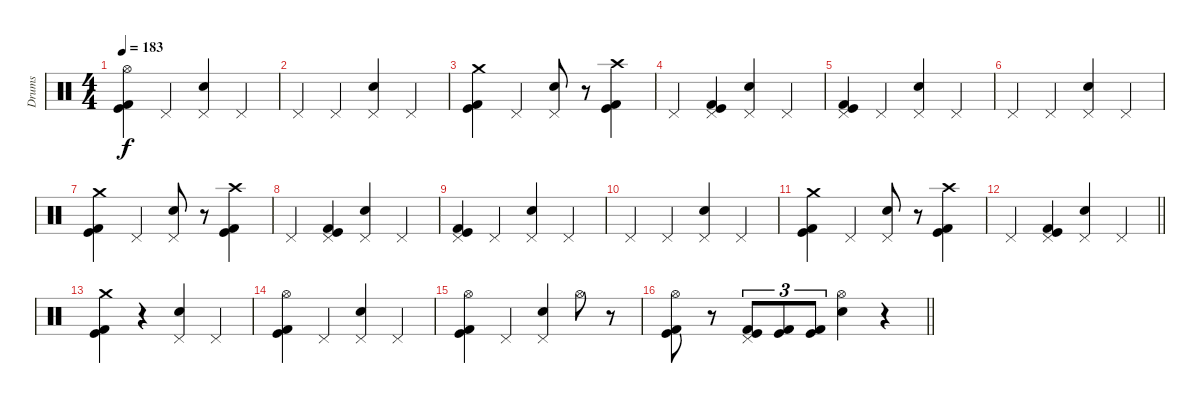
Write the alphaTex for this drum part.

\track ("Drums" "Drums") {instrument percussion}
\staff
\articulation defaults
\ts (4 4)
\tempo 183
\clef neutral
\ks c
("Hi-Hat (open)" "Kick (hit)" "Kick (hit) 2").4{dy f} "Pedal Hi-Hat (hit)".4 ("Pedal Hi-Hat (hit)" "Snare (hit) 2").4 "Pedal Hi-Hat (hit)".4 |
"Pedal Hi-Hat (hit)".4 "Pedal Hi-Hat (hit)".4 ("Pedal Hi-Hat (hit)" "Snare (hit) 2").4 "Pedal Hi-Hat (hit)".4 |
("Crash medium (hit)" "Kick (hit)" "Kick (hit) 2").4 "Pedal Hi-Hat (hit)".4 ("Pedal Hi-Hat (hit)" "Snare (hit) 2").8 r.8 ("Crash high (hit)" "Kick (hit)" "Kick (hit) 2").4 |
"Pedal Hi-Hat (hit)".4 ("Pedal Hi-Hat (hit)" "Kick (hit)" "Kick (hit) 2").4 ("Pedal Hi-Hat (hit)" "Snare (hit) 2").4 "Pedal Hi-Hat (hit)".4 |
("Pedal Hi-Hat (hit)" "Kick (hit)" "Kick (hit) 2").4 "Pedal Hi-Hat (hit)".4 ("Pedal Hi-Hat (hit)" "Snare (hit) 2").4 "Pedal Hi-Hat (hit)".4 |
"Pedal Hi-Hat (hit)".4 "Pedal Hi-Hat (hit)".4 ("Pedal Hi-Hat (hit)" "Snare (hit) 2").4 "Pedal Hi-Hat (hit)".4 |
("Crash medium (hit)" "Kick (hit)" "Kick (hit) 2").4 "Pedal Hi-Hat (hit)".4 ("Pedal Hi-Hat (hit)" "Snare (hit) 2").8 r.8 ("Crash high (hit)" "Kick (hit)" "Kick (hit) 2").4 |
"Pedal Hi-Hat (hit)".4 ("Pedal Hi-Hat (hit)" "Kick (hit)" "Kick (hit) 2").4 ("Pedal Hi-Hat (hit)" "Snare (hit) 2").4 "Pedal Hi-Hat (hit)".4 |
("Pedal Hi-Hat (hit)" "Kick (hit)" "Kick (hit) 2").4 "Pedal Hi-Hat (hit)".4 ("Pedal Hi-Hat (hit)" "Snare (hit) 2").4 "Pedal Hi-Hat (hit)".4 |
"Pedal Hi-Hat (hit)".4 "Pedal Hi-Hat (hit)".4 ("Pedal Hi-Hat (hit)" "Snare (hit) 2").4 "Pedal Hi-Hat (hit)".4 |
("Crash medium (hit)" "Kick (hit)" "Kick (hit) 2").4 "Pedal Hi-Hat (hit)".4 ("Pedal Hi-Hat (hit)" "Snare (hit) 2").8 r.8 ("Crash high (hit)" "Kick (hit)" "Kick (hit) 2").4 |
\barLineRight lightlight "Pedal Hi-Hat (hit)".4
("Pedal Hi-Hat (hit)" "Kick (hit)" "Kick (hit) 2").4 ("Pedal Hi-Hat (hit)" "Snare (hit) 2").4 "Pedal Hi-Hat (hit)".4 |
("Crash medium (hit)" "Kick (hit)" "Kick (hit) 2").4 r.4 ("Pedal Hi-Hat (hit)" "Snare (hit) 2").4 "Pedal Hi-Hat (hit)".4 |
("Hi-Hat (open)" "Kick (hit)" "Kick (hit) 2").4 "Pedal Hi-Hat (hit)".4 ("Pedal Hi-Hat (hit)" "Snare (hit) 2").4 "Pedal Hi-Hat (hit)".4 |
("Hi-Hat (open)" "Kick (hit)" "Kick (hit) 2").4 "Pedal Hi-Hat (hit)".4 ("Pedal Hi-Hat (hit)" "Snare (hit) 2").4 "Hi-Hat (open)".8 r.8 |
\barLineRight lightlight
("Hi-Hat (open)" "Kick (hit)" "Kick (hit) 2").8 r.8 ("Pedal Hi-Hat (hit)" "Kick (hit)" "Kick (hit) 2").8{tu (3 2)} ("Kick (hit)" "Kick (hit) 2").8{tu (3 2)} ("Kick (hit)" "Kick (hit) 2").8{tu (3 2)} ("Hi-Hat (open)" "Snare (hit) 2").4 r.4
